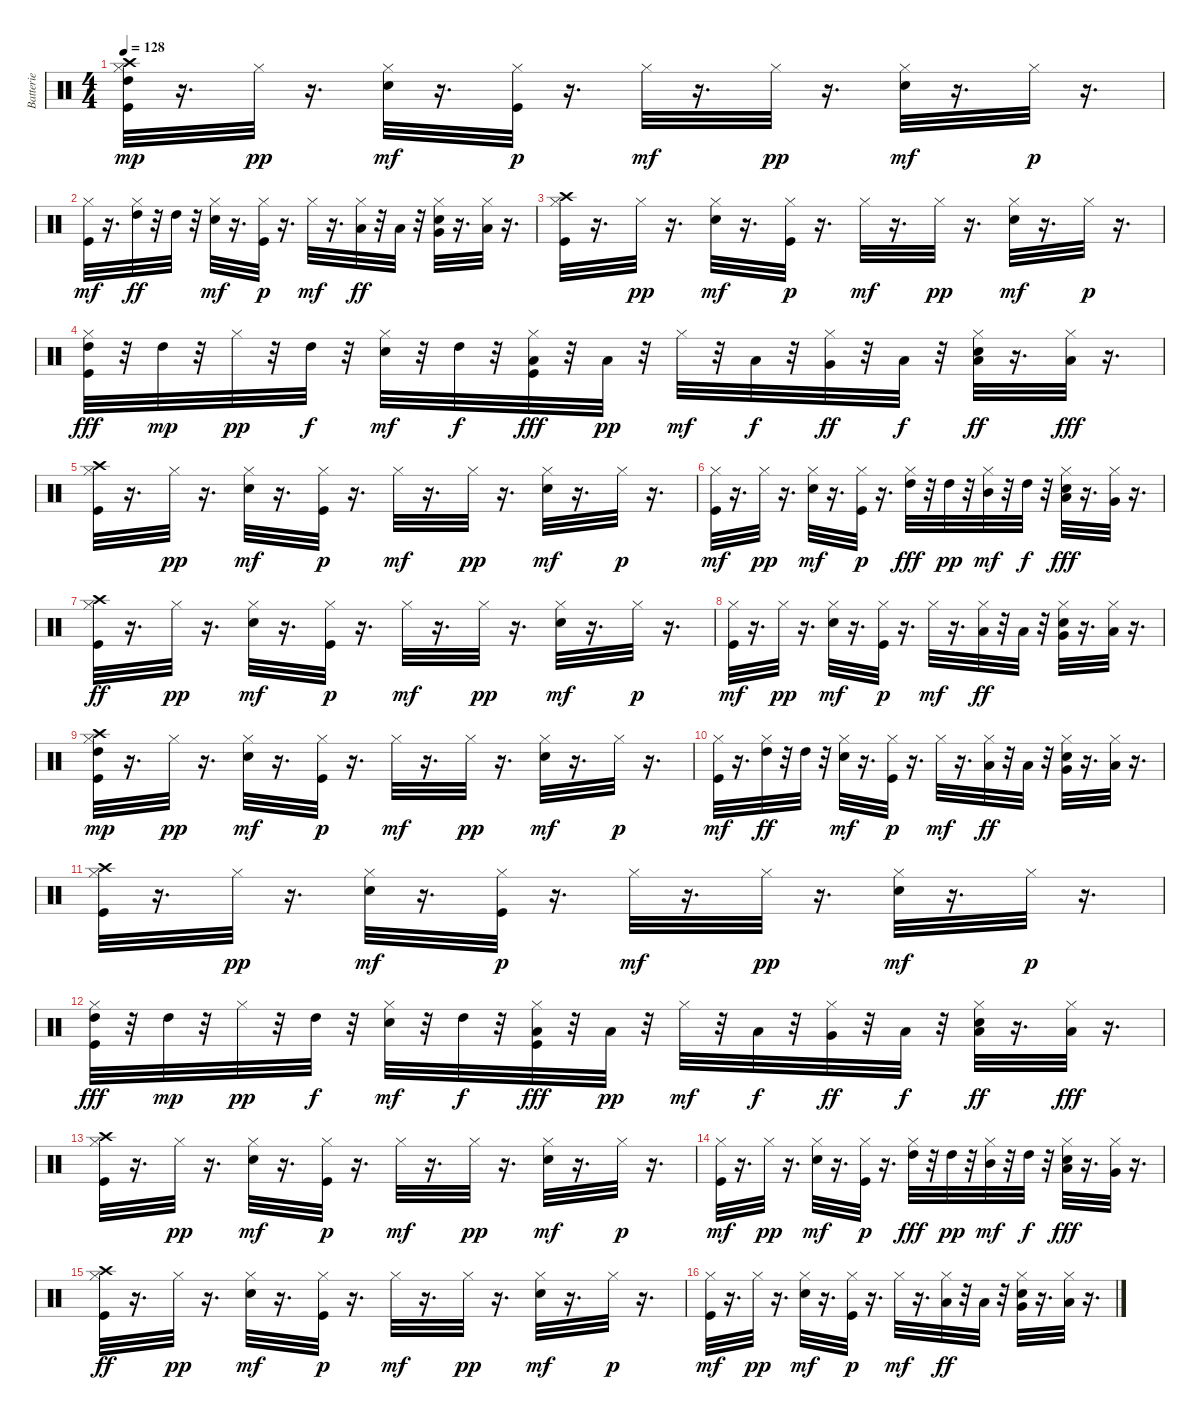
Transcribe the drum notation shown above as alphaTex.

\track ("Batterie" "Batterie") {instrument percussion}
\staff {score}
\articulation defaults
\ts (4 4)
\tempo 128
\clef neutral
\ks c
("Kick (hit)" "Hi-Hat (closed)" "High Tom (hit)" "Crash high (hit)").32{dy mp} r.16{d} "Hi-Hat (closed)".32{dy pp} r.16{d} ("Electric Snare (hit)" "Hi-Hat (closed)").32{dy mf} r.16{d} ("Kick (hit)" "Hi-Hat (closed)").32{dy p} r.16{d} "Hi-Hat (closed)".32{dy mf} r.16{d} "Hi-Hat (closed)".32{dy pp} r.16{d} ("Electric Snare (hit)" "Hi-Hat (closed)").32{dy mf} r.16{d} "Hi-Hat (closed)".32{dy p} r.16{d} |
("Kick (hit)" "Hi-Hat (closed)").32{dy mf} r.16{d} ("Hi-Hat (closed)" "High Tom (hit)").32{dy ff} r.32 "High Tom (hit)".32 r.32 ("Electric Snare (hit)" "Hi-Hat (closed)").32{dy mf} r.16{d} ("Kick (hit)" "Hi-Hat (closed)").32{dy p} r.16{d} "Hi-Hat (closed)".32{dy mf} r.16{d} ("Hi-Hat (closed)" "Low Tom (hit)").32{dy ff} r.32 "Low Tom (hit)".32 r.32 ("Electric Snare (hit)" "Hi-Hat (closed)" "Very Low Tom (hit)").32 r.16{d} ("Hi-Hat (closed)" "Low Floor Tom (hit)").32 r.16{d} |
("Kick (hit)" "Hi-Hat (closed)" "Crash high (hit)").32 r.16{d} "Hi-Hat (closed)".32{dy pp} r.16{d} ("Electric Snare (hit)" "Hi-Hat (closed)").32{dy mf} r.16{d} ("Kick (hit)" "Hi-Hat (closed)").32{dy p} r.16{d} "Hi-Hat (closed)".32{dy mf} r.16{d} "Hi-Hat (closed)".32{dy pp} r.16{d} ("Electric Snare (hit)" "Hi-Hat (closed)").32{dy mf} r.16{d} "Hi-Hat (closed)".32{dy p} r.16{d} |
("Kick (hit)" "Hi-Hat (closed)" "High Tom (hit)").32{dy fff} r.32 "High Tom (hit)".32{dy mp} r.32 "Hi-Hat (closed)".32{dy pp} r.32 "High Tom (hit)".32{dy f} r.32 ("Electric Snare (hit)" "Hi-Hat (closed)").32{dy mf} r.32 "High Tom (hit)".32{dy f} r.32 ("Kick (hit)" "Hi-Hat (closed)" "Low Tom (hit)").32{dy fff} r.32 "Low Tom (hit)".32{dy pp} r.32 "Hi-Hat (closed)".32{dy mf} r.32 "Low Tom (hit)".32{dy f} r.32 ("Hi-Hat (closed)" "Very Low Tom (hit)").32{dy ff} r.32 "Low Tom (hit)".32{dy f} r.32 ("Electric Snare (hit)" "Hi-Hat (closed)" "Low Floor Tom (hit)").32{dy ff} r.16{d} ("Hi-Hat (closed)" "Low Floor Tom (hit)").32{dy fff} r.16{d} |
("Kick (hit)" "Hi-Hat (closed)" "Crash high (hit)").32 r.16{d} "Hi-Hat (closed)".32{dy pp} r.16{d} ("Electric Snare (hit)" "Hi-Hat (closed)").32{dy mf} r.16{d} ("Kick (hit)" "Hi-Hat (closed)").32{dy p} r.16{d} "Hi-Hat (closed)".32{dy mf} r.16{d} "Hi-Hat (closed)".32{dy pp} r.16{d} ("Electric Snare (hit)" "Hi-Hat (closed)").32{dy mf} r.16{d} "Hi-Hat (closed)".32{dy p} r.16{d} |
("Kick (hit)" "Hi-Hat (closed)").32{dy mf} r.16{d} "Hi-Hat (closed)".32{dy pp} r.16{d} ("Electric Snare (hit)" "Hi-Hat (closed)").32{dy mf} r.16{d} ("Kick (hit)" "Hi-Hat (closed)").32{dy p} r.16{d} ("Hi-Hat (closed)" "High Tom (hit)").32{dy fff} r.32 "High Tom (hit)".32{dy pp} r.32 ("Hi-Hat (closed)" "Mid Tom (hit)").32{dy mf} r.32 "High Tom (hit)".32{dy f} r.32 ("Electric Snare (hit)" "Hi-Hat (closed)" "Low Tom (hit)").32{dy fff} r.16{d} ("Hi-Hat (closed)" "Very Low Tom (hit)").32 r.16{d} |
("Kick (hit)" "Hi-Hat (closed)" "Crash high (hit)").32{dy ff} r.16{d} "Hi-Hat (closed)".32{dy pp} r.16{d} ("Electric Snare (hit)" "Hi-Hat (closed)").32{dy mf} r.16{d} ("Kick (hit)" "Hi-Hat (closed)").32{dy p} r.16{d} "Hi-Hat (closed)".32{dy mf} r.16{d} "Hi-Hat (closed)".32{dy pp} r.16{d} ("Electric Snare (hit)" "Hi-Hat (closed)").32{dy mf} r.16{d} "Hi-Hat (closed)".32{dy p} r.16{d} |
("Kick (hit)" "Hi-Hat (closed)").32{dy mf} r.16{d} "Hi-Hat (closed)".32{dy pp} r.16{d} ("Electric Snare (hit)" "Hi-Hat (closed)").32{dy mf} r.16{d} ("Kick (hit)" "Hi-Hat (closed)").32{dy p} r.16{d} "Hi-Hat (closed)".32{dy mf} r.16{d} ("Hi-Hat (closed)" "Low Tom (hit)").32{dy ff} r.32 "Low Tom (hit)".32 r.32 ("Electric Snare (hit)" "Hi-Hat (closed)" "Very Low Tom (hit)").32 r.16{d} ("Hi-Hat (closed)" "Low Floor Tom (hit)").32 r.16{d} |
("Kick (hit)" "Hi-Hat (closed)" "High Tom (hit)" "Crash high (hit)").32{dy mp} r.16{d} "Hi-Hat (closed)".32{dy pp} r.16{d} ("Electric Snare (hit)" "Hi-Hat (closed)").32{dy mf} r.16{d} ("Kick (hit)" "Hi-Hat (closed)").32{dy p} r.16{d} "Hi-Hat (closed)".32{dy mf} r.16{d} "Hi-Hat (closed)".32{dy pp} r.16{d} ("Electric Snare (hit)" "Hi-Hat (closed)").32{dy mf} r.16{d} "Hi-Hat (closed)".32{dy p} r.16{d} |
("Kick (hit)" "Hi-Hat (closed)").32{dy mf} r.16{d} ("Hi-Hat (closed)" "High Tom (hit)").32{dy ff} r.32 "High Tom (hit)".32 r.32 ("Electric Snare (hit)" "Hi-Hat (closed)").32{dy mf} r.16{d} ("Kick (hit)" "Hi-Hat (closed)").32{dy p} r.16{d} "Hi-Hat (closed)".32{dy mf} r.16{d} ("Hi-Hat (closed)" "Low Tom (hit)").32{dy ff} r.32 "Low Tom (hit)".32 r.32 ("Electric Snare (hit)" "Hi-Hat (closed)" "Very Low Tom (hit)").32 r.16{d} ("Hi-Hat (closed)" "Low Floor Tom (hit)").32 r.16{d} |
("Kick (hit)" "Hi-Hat (closed)" "Crash high (hit)").32 r.16{d} "Hi-Hat (closed)".32{dy pp} r.16{d} ("Electric Snare (hit)" "Hi-Hat (closed)").32{dy mf} r.16{d} ("Kick (hit)" "Hi-Hat (closed)").32{dy p} r.16{d} "Hi-Hat (closed)".32{dy mf} r.16{d} "Hi-Hat (closed)".32{dy pp} r.16{d} ("Electric Snare (hit)" "Hi-Hat (closed)").32{dy mf} r.16{d} "Hi-Hat (closed)".32{dy p} r.16{d} |
("Kick (hit)" "Hi-Hat (closed)" "High Tom (hit)").32{dy fff} r.32 "High Tom (hit)".32{dy mp} r.32 "Hi-Hat (closed)".32{dy pp} r.32 "High Tom (hit)".32{dy f} r.32 ("Electric Snare (hit)" "Hi-Hat (closed)").32{dy mf} r.32 "High Tom (hit)".32{dy f} r.32 ("Kick (hit)" "Hi-Hat (closed)" "Low Tom (hit)").32{dy fff} r.32 "Low Tom (hit)".32{dy pp} r.32 "Hi-Hat (closed)".32{dy mf} r.32 "Low Tom (hit)".32{dy f} r.32 ("Hi-Hat (closed)" "Very Low Tom (hit)").32{dy ff} r.32 "Low Tom (hit)".32{dy f} r.32 ("Electric Snare (hit)" "Hi-Hat (closed)" "Low Floor Tom (hit)").32{dy ff} r.16{d} ("Hi-Hat (closed)" "Low Floor Tom (hit)").32{dy fff} r.16{d} |
("Kick (hit)" "Hi-Hat (closed)" "Crash high (hit)").32 r.16{d} "Hi-Hat (closed)".32{dy pp} r.16{d} ("Electric Snare (hit)" "Hi-Hat (closed)").32{dy mf} r.16{d} ("Kick (hit)" "Hi-Hat (closed)").32{dy p} r.16{d} "Hi-Hat (closed)".32{dy mf} r.16{d} "Hi-Hat (closed)".32{dy pp} r.16{d} ("Electric Snare (hit)" "Hi-Hat (closed)").32{dy mf} r.16{d} "Hi-Hat (closed)".32{dy p} r.16{d} |
("Kick (hit)" "Hi-Hat (closed)").32{dy mf} r.16{d} "Hi-Hat (closed)".32{dy pp} r.16{d} ("Electric Snare (hit)" "Hi-Hat (closed)").32{dy mf} r.16{d} ("Kick (hit)" "Hi-Hat (closed)").32{dy p} r.16{d} ("Hi-Hat (closed)" "High Tom (hit)").32{dy fff} r.32 "High Tom (hit)".32{dy pp} r.32 ("Hi-Hat (closed)" "Mid Tom (hit)").32{dy mf} r.32 "High Tom (hit)".32{dy f} r.32 ("Electric Snare (hit)" "Hi-Hat (closed)" "Low Tom (hit)").32{dy fff} r.16{d} ("Hi-Hat (closed)" "Very Low Tom (hit)").32 r.16{d} |
("Kick (hit)" "Hi-Hat (closed)" "Crash high (hit)").32{dy ff} r.16{d} "Hi-Hat (closed)".32{dy pp} r.16{d} ("Electric Snare (hit)" "Hi-Hat (closed)").32{dy mf} r.16{d} ("Kick (hit)" "Hi-Hat (closed)").32{dy p} r.16{d} "Hi-Hat (closed)".32{dy mf} r.16{d} "Hi-Hat (closed)".32{dy pp} r.16{d} ("Electric Snare (hit)" "Hi-Hat (closed)").32{dy mf} r.16{d} "Hi-Hat (closed)".32{dy p} r.16{d} |
("Kick (hit)" "Hi-Hat (closed)").32{dy mf} r.16{d} "Hi-Hat (closed)".32{dy pp} r.16{d} ("Electric Snare (hit)" "Hi-Hat (closed)").32{dy mf} r.16{d} ("Kick (hit)" "Hi-Hat (closed)").32{dy p} r.16{d} "Hi-Hat (closed)".32{dy mf} r.16{d} ("Hi-Hat (closed)" "Low Tom (hit)").32{dy ff} r.32 "Low Tom (hit)".32 r.32 ("Electric Snare (hit)" "Hi-Hat (closed)" "Very Low Tom (hit)").32 r.16{d} ("Hi-Hat (closed)" "Low Floor Tom (hit)").32 r.16{d}
